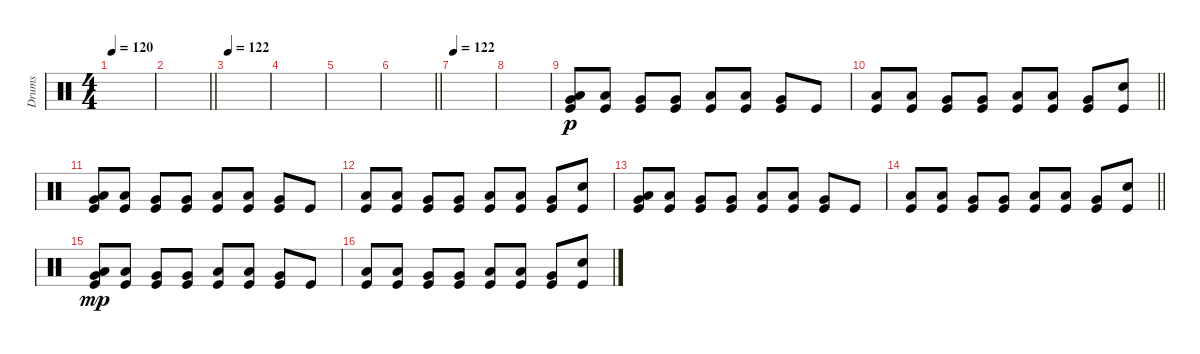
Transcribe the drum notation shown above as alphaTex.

\track ("Drums" "Drums") {instrument percussion}
\staff
\articulation defaults
\ts (4 4)
\tempo 120
\clef neutral
\ks c
|
\barLineRight lightlight
|
\tempo 122
|
|
|
\barLineRight lightlight
|
\tempo 122
|
|
("Very Low Tom (hit)" "Low Tom (hit)" "Kick (hit)").8{dy p} ("Low Tom (hit)" "Kick (hit)").8 ("Very Low Tom (hit)" "Kick (hit)").8 ("Very Low Tom (hit)" "Kick (hit)").8 ("Low Tom (hit)" "Kick (hit)").8 ("Low Tom (hit)" "Kick (hit)").8 ("Very Low Tom (hit)" "Kick (hit)").8 "Kick (hit)".8 |
\barLineRight lightlight
("Low Tom (hit)" "Kick (hit)").8 ("Low Tom (hit)" "Kick (hit)").8 ("Very Low Tom (hit)" "Kick (hit)").8 ("Very Low Tom (hit)" "Kick (hit)").8 ("Low Tom (hit)" "Kick (hit)").8 ("Low Tom (hit)" "Kick (hit)").8 ("Very Low Tom (hit)" "Kick (hit)").8 ("Snare (hit) 2" "Kick (hit)").8 |
("Very Low Tom (hit)" "Low Tom (hit)" "Kick (hit)").8 ("Low Tom (hit)" "Kick (hit)").8 ("Very Low Tom (hit)" "Kick (hit)").8 ("Very Low Tom (hit)" "Kick (hit)").8 ("Low Tom (hit)" "Kick (hit)").8 ("Low Tom (hit)" "Kick (hit)").8 ("Very Low Tom (hit)" "Kick (hit)").8 "Kick (hit)".8 |
("Low Tom (hit)" "Kick (hit)").8 ("Low Tom (hit)" "Kick (hit)").8 ("Very Low Tom (hit)" "Kick (hit)").8 ("Very Low Tom (hit)" "Kick (hit)").8 ("Low Tom (hit)" "Kick (hit)").8 ("Low Tom (hit)" "Kick (hit)").8 ("Very Low Tom (hit)" "Kick (hit)").8 ("Snare (hit) 2" "Kick (hit)").8 |
("Very Low Tom (hit)" "Low Tom (hit)" "Kick (hit)").8 ("Low Tom (hit)" "Kick (hit)").8 ("Very Low Tom (hit)" "Kick (hit)").8 ("Very Low Tom (hit)" "Kick (hit)").8 ("Low Tom (hit)" "Kick (hit)").8 ("Low Tom (hit)" "Kick (hit)").8 ("Very Low Tom (hit)" "Kick (hit)").8 "Kick (hit)".8 |
\barLineRight lightlight
("Low Tom (hit)" "Kick (hit)").8 ("Low Tom (hit)" "Kick (hit)").8 ("Very Low Tom (hit)" "Kick (hit)").8 ("Very Low Tom (hit)" "Kick (hit)").8 ("Low Tom (hit)" "Kick (hit)").8 ("Low Tom (hit)" "Kick (hit)").8 ("Very Low Tom (hit)" "Kick (hit)").8 ("Snare (hit) 2" "Kick (hit)").8 |
("Very Low Tom (hit)" "Low Tom (hit)" "Kick (hit)").8{dy mp} ("Low Tom (hit)" "Kick (hit)").8 ("Very Low Tom (hit)" "Kick (hit)").8 ("Very Low Tom (hit)" "Kick (hit)").8 ("Low Tom (hit)" "Kick (hit)").8 ("Low Tom (hit)" "Kick (hit)").8 ("Very Low Tom (hit)" "Kick (hit)").8 "Kick (hit)".8 |
("Low Tom (hit)" "Kick (hit)").8 ("Low Tom (hit)" "Kick (hit)").8 ("Very Low Tom (hit)" "Kick (hit)").8 ("Very Low Tom (hit)" "Kick (hit)").8 ("Low Tom (hit)" "Kick (hit)").8 ("Low Tom (hit)" "Kick (hit)").8 ("Very Low Tom (hit)" "Kick (hit)").8 ("Snare (hit) 2" "Kick (hit)").8
